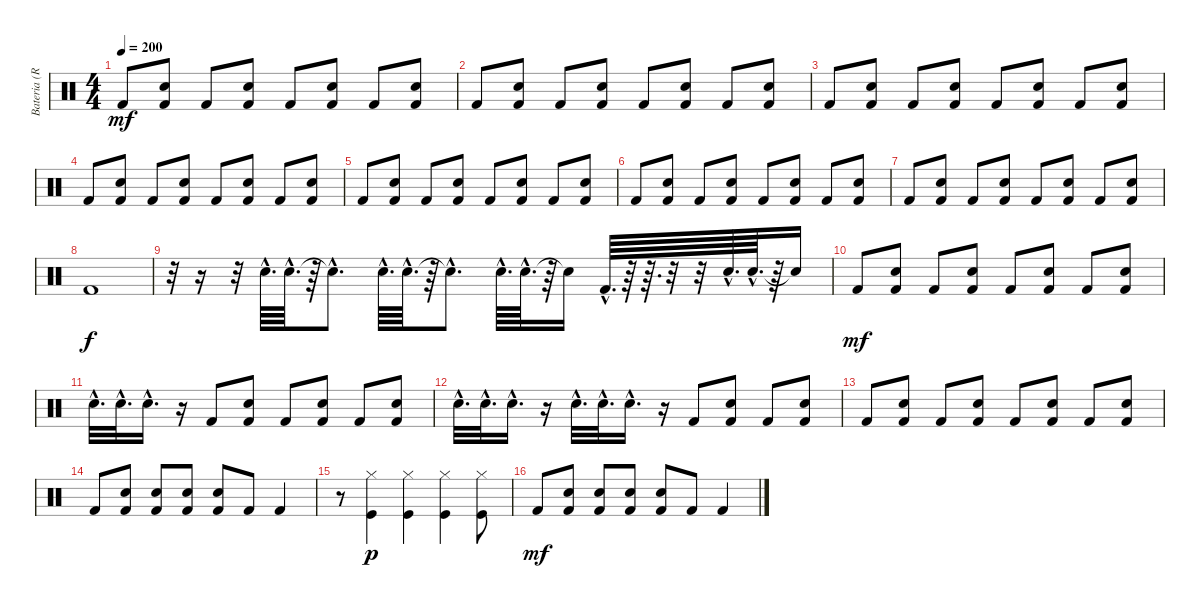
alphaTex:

\track ("Bateria (Ray)" "Bateria (R") {instrument percussion}
\staff {score}
\articulation defaults
\ts (4 4)
\tempo 200
\clef neutral
\ks c "Kick (hit) 2".8{dy mf}
("Electric Snare (hit)" "Kick (hit) 2").8 "Kick (hit) 2".8 ("Electric Snare (hit)" "Kick (hit) 2").8 "Kick (hit) 2".8 ("Electric Snare (hit)" "Kick (hit) 2").8 "Kick (hit) 2".8 ("Electric Snare (hit)" "Kick (hit) 2").8 |
"Kick (hit) 2".8 ("Electric Snare (hit)" "Kick (hit) 2").8 "Kick (hit) 2".8 ("Electric Snare (hit)" "Kick (hit) 2").8 "Kick (hit) 2".8 ("Electric Snare (hit)" "Kick (hit) 2").8 "Kick (hit) 2".8 ("Electric Snare (hit)" "Kick (hit) 2").8 |
"Kick (hit) 2".8 ("Electric Snare (hit)" "Kick (hit) 2").8 "Kick (hit) 2".8 ("Electric Snare (hit)" "Kick (hit) 2").8 "Kick (hit) 2".8 ("Electric Snare (hit)" "Kick (hit) 2").8 "Kick (hit) 2".8 ("Electric Snare (hit)" "Kick (hit) 2").8 |
"Kick (hit) 2".8 ("Electric Snare (hit)" "Kick (hit) 2").8 "Kick (hit) 2".8 ("Electric Snare (hit)" "Kick (hit) 2").8 "Kick (hit) 2".8 ("Electric Snare (hit)" "Kick (hit) 2").8 "Kick (hit) 2".8 ("Electric Snare (hit)" "Kick (hit) 2").8 |
"Kick (hit) 2".8 ("Electric Snare (hit)" "Kick (hit) 2").8 "Kick (hit) 2".8 ("Electric Snare (hit)" "Kick (hit) 2").8 "Kick (hit) 2".8 ("Electric Snare (hit)" "Kick (hit) 2").8 "Kick (hit) 2".8 ("Electric Snare (hit)" "Kick (hit) 2").8 |
"Kick (hit) 2".8 ("Electric Snare (hit)" "Kick (hit) 2").8 "Kick (hit) 2".8 ("Electric Snare (hit)" "Kick (hit) 2").8 "Kick (hit) 2".8 ("Electric Snare (hit)" "Kick (hit) 2").8 "Kick (hit) 2".8 ("Electric Snare (hit)" "Kick (hit) 2").8 |
"Kick (hit) 2".8 ("Electric Snare (hit)" "Kick (hit) 2").8 "Kick (hit) 2".8 ("Electric Snare (hit)" "Kick (hit) 2").8 "Kick (hit) 2".8 ("Electric Snare (hit)" "Kick (hit) 2").8 "Kick (hit) 2".8 ("Electric Snare (hit)" "Kick (hit) 2").8 |
"Kick (hit) 2".1{dy f} |
r.32 r.16 r.32 "Electric Snare (hit)"{hac}.64{d} "Electric Snare (hit)"{hac}.64{d} r.64 "Snare (hit)"{hac t}.8{d} "Electric Snare (hit)"{hac}.64{d} "Electric Snare (hit)"{hac}.64{d} r.64 "Electric Snare (hit)"{hac t}.8{d} "Electric Snare (hit)"{hac}.64{d} "Electric Snare (hit)"{hac}.64{d} r.64 "Electric Snare (hit)"{t}.16 "Kick (hit) 2"{hac}.64{d} r.64 r.64{d} r.32 r.32 "Electric Snare (hit)"{hac}.64{d} "Electric Snare (hit)"{hac}.64{d} r.64 "Electric Snare (hit)"{t}.16 |
"Kick (hit) 2".8{dy mf} ("Electric Snare (hit)" "Kick (hit) 2").8 "Kick (hit) 2".8 ("Electric Snare (hit)" "Kick (hit) 2").8 "Kick (hit) 2".8 ("Electric Snare (hit)" "Kick (hit) 2").8 "Kick (hit) 2".8 ("Electric Snare (hit)" "Kick (hit) 2").8 |
"Electric Snare (hit)"{hac}.32{d} "Electric Snare (hit)"{hac}.32{d} "Electric Snare (hit)"{hac}.16{d} r.16 "Kick (hit) 2".8 ("Electric Snare (hit)" "Kick (hit) 2").8 "Kick (hit) 2".8 ("Electric Snare (hit)" "Kick (hit) 2").8 "Kick (hit) 2".8 ("Electric Snare (hit)" "Kick (hit) 2").8 |
"Electric Snare (hit)"{hac}.32{d} "Electric Snare (hit)"{hac}.32{d} "Electric Snare (hit)"{hac}.16{d} r.16 "Electric Snare (hit)"{hac}.32{d} "Electric Snare (hit)"{hac}.32{d} "Electric Snare (hit)"{hac}.16{d} r.16 "Kick (hit) 2".8 ("Electric Snare (hit)" "Kick (hit) 2").8 "Kick (hit) 2".8 ("Electric Snare (hit)" "Kick (hit) 2").8 |
"Kick (hit) 2".8 ("Electric Snare (hit)" "Kick (hit) 2").8 "Kick (hit) 2".8 ("Electric Snare (hit)" "Kick (hit) 2").8 "Kick (hit) 2".8 ("Electric Snare (hit)" "Kick (hit) 2").8 "Kick (hit) 2".8 ("Electric Snare (hit)" "Kick (hit) 2").8 |
"Kick (hit) 2".8 ("Electric Snare (hit)" "Kick (hit) 2").8 ("Electric Snare (hit)" "Kick (hit) 2").8 ("Electric Snare (hit)" "Kick (hit) 2").8 ("Electric Snare (hit)" "Kick (hit) 2").8 "Kick (hit) 2".8 "Kick (hit) 2".4 |
r.8 ("Kick (hit)" "Hi-Hat (closed)").4{dy p} ("Kick (hit)" "Hi-Hat (closed)").4 ("Kick (hit)" "Hi-Hat (closed)").4 ("Kick (hit)" "Hi-Hat (closed)").8 |
"Kick (hit) 2".8{dy mf} ("Electric Snare (hit)" "Kick (hit) 2").8 ("Electric Snare (hit)" "Kick (hit) 2").8 ("Electric Snare (hit)" "Kick (hit) 2").8 ("Electric Snare (hit)" "Kick (hit) 2").8 "Kick (hit) 2".8 "Kick (hit) 2".4
